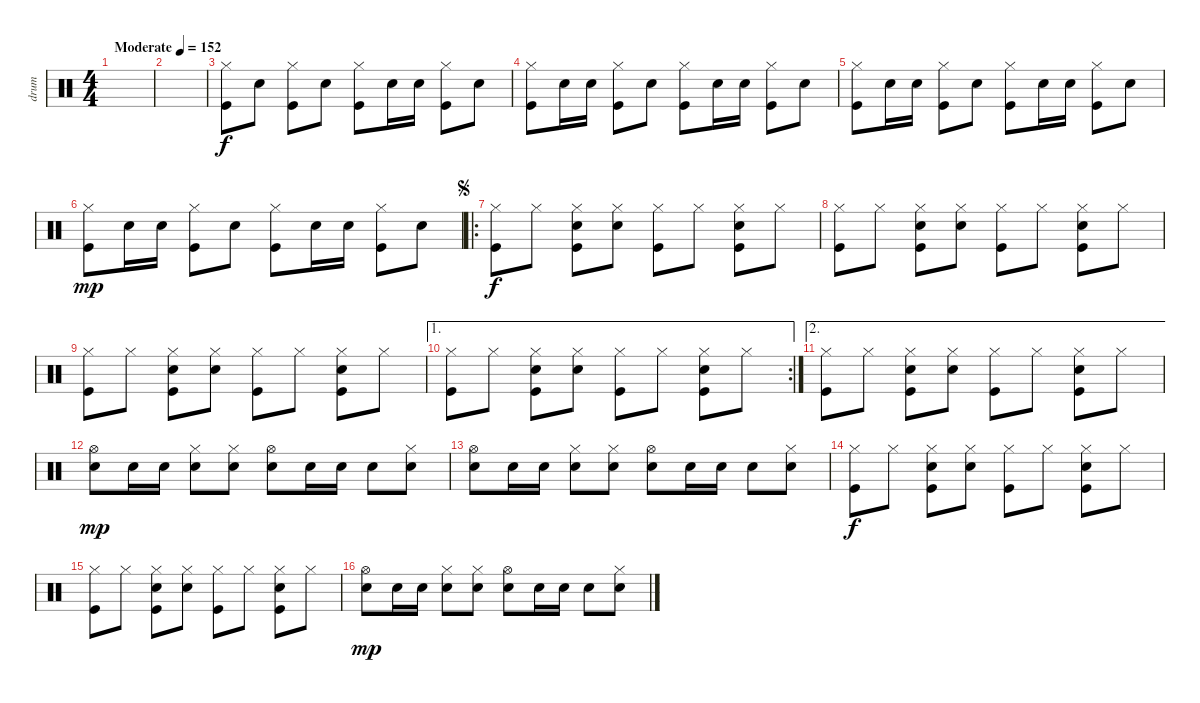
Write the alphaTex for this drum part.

\track ("drum" "drum") {instrument percussion}
\staff {score}
\articulation defaults
\ts (4 4)
\tempo (152 "Moderate")
\clef neutral
\ks c
|
|
("Hi-Hat (closed)" "Kick (hit)").8{volume 8} "Snare (hit) 2".8 ("Hi-Hat (closed)" "Kick (hit)").8 "Snare (hit) 2".8 ("Hi-Hat (closed)" "Kick (hit)").8 "Snare (hit) 2".16 "Snare (hit) 2".16 ("Hi-Hat (closed)" "Kick (hit)").8 "Snare (hit) 2".8 |
("Hi-Hat (closed)" "Kick (hit)").8 "Snare (hit) 2".16 "Snare (hit) 2".16 ("Hi-Hat (closed)" "Kick (hit)").8 "Snare (hit) 2".8 ("Hi-Hat (closed)" "Kick (hit)").8 "Snare (hit) 2".16 "Snare (hit) 2".16 ("Hi-Hat (closed)" "Kick (hit)").8 "Snare (hit) 2".8 |
("Hi-Hat (closed)" "Kick (hit)").8 "Snare (hit) 2".16 "Snare (hit) 2".16 ("Hi-Hat (closed)" "Kick (hit)").8 "Snare (hit) 2".8 ("Hi-Hat (closed)" "Kick (hit)").8 "Snare (hit) 2".16 "Snare (hit) 2".16 ("Hi-Hat (closed)" "Kick (hit)").8 "Snare (hit) 2".8 |
("Hi-Hat (closed)" "Kick (hit)").8{dy mp} "Snare (hit) 2".16 "Snare (hit) 2".16 ("Hi-Hat (closed)" "Kick (hit)").8 "Snare (hit) 2".8 ("Hi-Hat (closed)" "Kick (hit)").8 "Snare (hit) 2".16 "Snare (hit) 2".16 ("Hi-Hat (closed)" "Kick (hit)").8 "Snare (hit) 2".8 |
\ro
\jump segno
("Hi-Hat (closed)" "Kick (hit)").8{dy f} "Hi-Hat (closed)".8 ("Hi-Hat (closed)" "Snare (hit) 2" "Kick (hit)").8 ("Hi-Hat (closed)" "Snare (hit) 2").8 ("Hi-Hat (closed)" "Kick (hit)").8 "Hi-Hat (closed)".8 ("Hi-Hat (closed)" "Snare (hit) 2" "Kick (hit)").8 "Hi-Hat (closed)".8 |
("Hi-Hat (closed)" "Kick (hit)").8 "Hi-Hat (closed)".8 ("Hi-Hat (closed)" "Snare (hit) 2" "Kick (hit)").8 ("Hi-Hat (closed)" "Snare (hit) 2").8 ("Hi-Hat (closed)" "Kick (hit)").8 "Hi-Hat (closed)".8 ("Hi-Hat (closed)" "Snare (hit) 2" "Kick (hit)").8 "Hi-Hat (closed)".8 |
("Hi-Hat (closed)" "Kick (hit)").8 "Hi-Hat (closed)".8 ("Hi-Hat (closed)" "Snare (hit) 2" "Kick (hit)").8 ("Hi-Hat (closed)" "Snare (hit) 2").8 ("Hi-Hat (closed)" "Kick (hit)").8 "Hi-Hat (closed)".8 ("Hi-Hat (closed)" "Snare (hit) 2" "Kick (hit)").8 "Hi-Hat (closed)".8 |
\ae 1
\rc 2
("Hi-Hat (closed)" "Kick (hit)").8 "Hi-Hat (closed)".8 ("Hi-Hat (closed)" "Snare (hit) 2" "Kick (hit)").8 ("Hi-Hat (closed)" "Snare (hit) 2").8 ("Hi-Hat (closed)" "Kick (hit)").8 "Hi-Hat (closed)".8 ("Hi-Hat (closed)" "Snare (hit) 2" "Kick (hit)").8 "Hi-Hat (closed)".8 |
\ae 2
("Hi-Hat (closed)" "Kick (hit)").8 "Hi-Hat (closed)".8 ("Hi-Hat (closed)" "Snare (hit) 2" "Kick (hit)").8 ("Hi-Hat (closed)" "Snare (hit) 2").8 ("Hi-Hat (closed)" "Kick (hit)").8 "Hi-Hat (closed)".8 ("Hi-Hat (closed)" "Snare (hit) 2" "Kick (hit)").8 "Hi-Hat (closed)".8 |
("Hi-Hat (open)" "Snare (hit) 2").8{dy mp} "Snare (hit) 2".16 "Snare (hit) 2".16 ("Hi-Hat (closed)" "Snare (hit) 2").8 ("Hi-Hat (closed)" "Snare (hit) 2").8 ("Hi-Hat (open)" "Snare (hit) 2").8 "Snare (hit) 2".16 "Snare (hit) 2".16 "Snare (hit) 2".8 ("Hi-Hat (closed)" "Snare (hit) 2").8 |
("Hi-Hat (open)" "Snare (hit) 2").8 "Snare (hit) 2".16 "Snare (hit) 2".16 ("Hi-Hat (closed)" "Snare (hit) 2").8 ("Hi-Hat (closed)" "Snare (hit) 2").8 ("Hi-Hat (open)" "Snare (hit) 2").8 "Snare (hit) 2".16 "Snare (hit) 2".16 "Snare (hit) 2".8 ("Hi-Hat (closed)" "Snare (hit) 2").8 |
("Hi-Hat (closed)" "Kick (hit)").8{dy f} "Hi-Hat (closed)".8 ("Hi-Hat (closed)" "Snare (hit) 2" "Kick (hit)").8 ("Hi-Hat (closed)" "Snare (hit) 2").8 ("Hi-Hat (closed)" "Kick (hit)").8 "Hi-Hat (closed)".8 ("Hi-Hat (closed)" "Snare (hit) 2" "Kick (hit)").8 "Hi-Hat (closed)".8 |
("Hi-Hat (closed)" "Kick (hit)").8 "Hi-Hat (closed)".8 ("Hi-Hat (closed)" "Snare (hit) 2" "Kick (hit)").8 ("Hi-Hat (closed)" "Snare (hit) 2").8 ("Hi-Hat (closed)" "Kick (hit)").8 "Hi-Hat (closed)".8 ("Hi-Hat (closed)" "Snare (hit) 2" "Kick (hit)").8 "Hi-Hat (closed)".8 |
("Hi-Hat (open)" "Snare (hit) 2").8{dy mp} "Snare (hit) 2".16 "Snare (hit) 2".16 ("Hi-Hat (closed)" "Snare (hit) 2").8 ("Hi-Hat (closed)" "Snare (hit) 2").8 ("Hi-Hat (open)" "Snare (hit) 2").8 "Snare (hit) 2".16 "Snare (hit) 2".16 "Snare (hit) 2".8 ("Hi-Hat (closed)" "Snare (hit) 2").8
